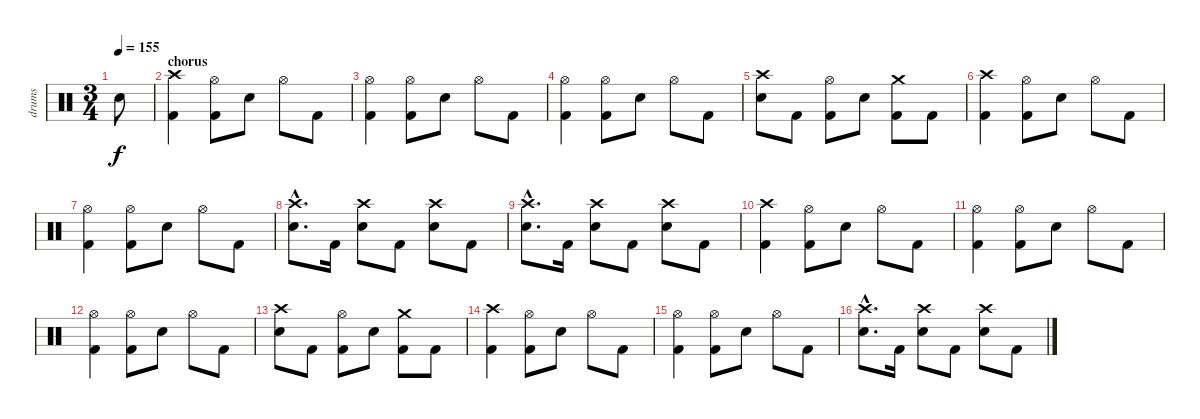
\track ("drums" "drums") {instrument percussion}
\staff {score}
\articulation defaults
\ts (3 4)
\tempo 155
\clef neutral
\ks c "Electric Snare (hit)".8{dy f}
|
\section ("" "chorus")
("Crash high (hit)" "Kick (hit) 2").4 ("Hi-Hat (open)" "Kick (hit) 2").8 "Electric Snare (hit)".8 "Hi-Hat (open)".8 "Kick (hit) 2".8 |
("Hi-Hat (open)" "Kick (hit) 2").4 ("Hi-Hat (open)" "Kick (hit) 2").8 "Electric Snare (hit)".8 "Hi-Hat (open)".8 "Kick (hit) 2".8 |
("Hi-Hat (open)" "Kick (hit) 2").4 ("Hi-Hat (open)" "Kick (hit) 2").8 "Electric Snare (hit)".8 "Hi-Hat (open)".8 "Kick (hit) 2".8 |
("Crash high (hit)" "Electric Snare (hit)").8 "Kick (hit) 2".8 ("Hi-Hat (open)" "Kick (hit) 2").8 "Electric Snare (hit)".8 ("Crash medium (hit)" "Kick (hit) 2").8 "Kick (hit) 2".8 |
("Crash high (hit)" "Kick (hit) 2").4 ("Hi-Hat (open)" "Kick (hit) 2").8 "Electric Snare (hit)".8 "Hi-Hat (open)".8 "Kick (hit) 2".8 |
("Hi-Hat (open)" "Kick (hit) 2").4 ("Hi-Hat (open)" "Kick (hit) 2").8 "Electric Snare (hit)".8 "Hi-Hat (open)".8 "Kick (hit) 2".8 |
("Crash high (hit)"{hac} "Electric Snare (hit)"{hac}).8{d} "Kick (hit) 2".16 ("Crash high (hit)" "Electric Snare (hit)").8 "Kick (hit) 2".8 ("Crash high (hit)" "Electric Snare (hit)").8 "Kick (hit) 2".8 |
("Crash high (hit)"{hac} "Electric Snare (hit)"{hac}).8{d} "Kick (hit) 2".16 ("Crash high (hit)" "Electric Snare (hit)").8 "Kick (hit) 2".8 ("Crash high (hit)" "Electric Snare (hit)").8 "Kick (hit) 2".8 |
("Crash high (hit)" "Kick (hit) 2").4 ("Hi-Hat (open)" "Kick (hit) 2").8 "Electric Snare (hit)".8 "Hi-Hat (open)".8 "Kick (hit) 2".8 |
("Hi-Hat (open)" "Kick (hit) 2").4 ("Hi-Hat (open)" "Kick (hit) 2").8 "Electric Snare (hit)".8 "Hi-Hat (open)".8 "Kick (hit) 2".8 |
("Hi-Hat (open)" "Kick (hit) 2").4 ("Hi-Hat (open)" "Kick (hit) 2").8 "Electric Snare (hit)".8 "Hi-Hat (open)".8 "Kick (hit) 2".8 |
("Crash high (hit)" "Electric Snare (hit)").8 "Kick (hit) 2".8 ("Hi-Hat (open)" "Kick (hit) 2").8 "Electric Snare (hit)".8 ("Crash medium (hit)" "Kick (hit) 2").8 "Kick (hit) 2".8 |
("Crash high (hit)" "Kick (hit) 2").4 ("Hi-Hat (open)" "Kick (hit) 2").8 "Electric Snare (hit)".8 "Hi-Hat (open)".8 "Kick (hit) 2".8 |
("Hi-Hat (open)" "Kick (hit) 2").4 ("Hi-Hat (open)" "Kick (hit) 2").8 "Electric Snare (hit)".8 "Hi-Hat (open)".8 "Kick (hit) 2".8 |
("Crash high (hit)"{hac} "Electric Snare (hit)"{hac}).8{d} "Kick (hit) 2".16 ("Crash high (hit)" "Electric Snare (hit)").8 "Kick (hit) 2".8 ("Crash high (hit)" "Electric Snare (hit)").8 "Kick (hit) 2".8
